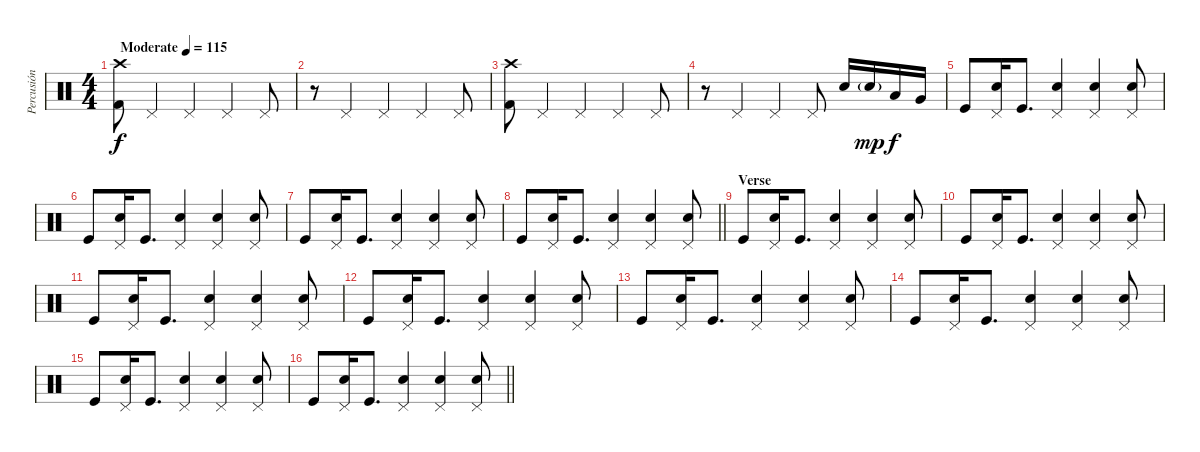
\track ("Percusión" "Percusión") {instrument percussion}
\staff {score}
\articulation defaults
\ts (4 4)
\tempo (115 "Moderate")
\clef neutral
\ks c
("Kick (hit) 2" "Crash high (hit)").8{dy f} "Pedal Hi-Hat (hit)".4 "Pedal Hi-Hat (hit)".4 "Pedal Hi-Hat (hit)".4 "Pedal Hi-Hat (hit)".8 |
r.8 "Pedal Hi-Hat (hit)".4 "Pedal Hi-Hat (hit)".4 "Pedal Hi-Hat (hit)".4 "Pedal Hi-Hat (hit)".8 |
("Kick (hit) 2" "Crash high (hit)").8 "Pedal Hi-Hat (hit)".4 "Pedal Hi-Hat (hit)".4 "Pedal Hi-Hat (hit)".4 "Pedal Hi-Hat (hit)".8 |
r.8 "Pedal Hi-Hat (hit)".4 "Pedal Hi-Hat (hit)".4 "Pedal Hi-Hat (hit)".8 "Electric Snare (hit)".16 "Electric Snare (hit)"{g}.16{dy mp} "Low Tom (hit)".16{dy f} "Very Low Tom (hit)".16 |
"Kick (hit)".8 ("Electric Snare (hit)" "Pedal Hi-Hat (hit)").16 "Kick (hit)".8{d} ("Electric Snare (hit)" "Pedal Hi-Hat (hit)").4 ("Electric Snare (hit)" "Pedal Hi-Hat (hit)").4 ("Electric Snare (hit)" "Pedal Hi-Hat (hit)").8 |
"Kick (hit)".8 ("Electric Snare (hit)" "Pedal Hi-Hat (hit)").16 "Kick (hit)".8{d} ("Electric Snare (hit)" "Pedal Hi-Hat (hit)").4 ("Electric Snare (hit)" "Pedal Hi-Hat (hit)").4 ("Electric Snare (hit)" "Pedal Hi-Hat (hit)").8 |
"Kick (hit)".8 ("Electric Snare (hit)" "Pedal Hi-Hat (hit)").16 "Kick (hit)".8{d} ("Electric Snare (hit)" "Pedal Hi-Hat (hit)").4 ("Electric Snare (hit)" "Pedal Hi-Hat (hit)").4 ("Electric Snare (hit)" "Pedal Hi-Hat (hit)").8 |
\barLineRight lightlight "Kick (hit)".8
("Electric Snare (hit)" "Pedal Hi-Hat (hit)").16 "Kick (hit)".8{d} ("Electric Snare (hit)" "Pedal Hi-Hat (hit)").4 ("Electric Snare (hit)" "Pedal Hi-Hat (hit)").4 ("Electric Snare (hit)" "Pedal Hi-Hat (hit)").8 |
\section ("" "Verse")
"Kick (hit)".8 ("Electric Snare (hit)" "Pedal Hi-Hat (hit)").16 "Kick (hit)".8{d} ("Electric Snare (hit)" "Pedal Hi-Hat (hit)").4 ("Electric Snare (hit)" "Pedal Hi-Hat (hit)").4 ("Electric Snare (hit)" "Pedal Hi-Hat (hit)").8 |
"Kick (hit)".8 ("Electric Snare (hit)" "Pedal Hi-Hat (hit)").16 "Kick (hit)".8{d} ("Electric Snare (hit)" "Pedal Hi-Hat (hit)").4 ("Electric Snare (hit)" "Pedal Hi-Hat (hit)").4 ("Electric Snare (hit)" "Pedal Hi-Hat (hit)").8 |
"Kick (hit)".8 ("Electric Snare (hit)" "Pedal Hi-Hat (hit)").16 "Kick (hit)".8{d} ("Electric Snare (hit)" "Pedal Hi-Hat (hit)").4 ("Electric Snare (hit)" "Pedal Hi-Hat (hit)").4 ("Electric Snare (hit)" "Pedal Hi-Hat (hit)").8 |
"Kick (hit)".8 ("Electric Snare (hit)" "Pedal Hi-Hat (hit)").16 "Kick (hit)".8{d} ("Electric Snare (hit)" "Pedal Hi-Hat (hit)").4 ("Electric Snare (hit)" "Pedal Hi-Hat (hit)").4 ("Electric Snare (hit)" "Pedal Hi-Hat (hit)").8 |
"Kick (hit)".8 ("Electric Snare (hit)" "Pedal Hi-Hat (hit)").16 "Kick (hit)".8{d} ("Electric Snare (hit)" "Pedal Hi-Hat (hit)").4 ("Electric Snare (hit)" "Pedal Hi-Hat (hit)").4 ("Electric Snare (hit)" "Pedal Hi-Hat (hit)").8 |
"Kick (hit)".8 ("Electric Snare (hit)" "Pedal Hi-Hat (hit)").16 "Kick (hit)".8{d} ("Electric Snare (hit)" "Pedal Hi-Hat (hit)").4 ("Electric Snare (hit)" "Pedal Hi-Hat (hit)").4 ("Electric Snare (hit)" "Pedal Hi-Hat (hit)").8 |
"Kick (hit)".8 ("Electric Snare (hit)" "Pedal Hi-Hat (hit)").16 "Kick (hit)".8{d} ("Electric Snare (hit)" "Pedal Hi-Hat (hit)").4 ("Electric Snare (hit)" "Pedal Hi-Hat (hit)").4 ("Electric Snare (hit)" "Pedal Hi-Hat (hit)").8 |
\barLineRight lightlight "Kick (hit)".8
("Electric Snare (hit)" "Pedal Hi-Hat (hit)").16 "Kick (hit)".8{d} ("Electric Snare (hit)" "Pedal Hi-Hat (hit)").4 ("Electric Snare (hit)" "Pedal Hi-Hat (hit)").4 ("Electric Snare (hit)" "Pedal Hi-Hat (hit)").8
